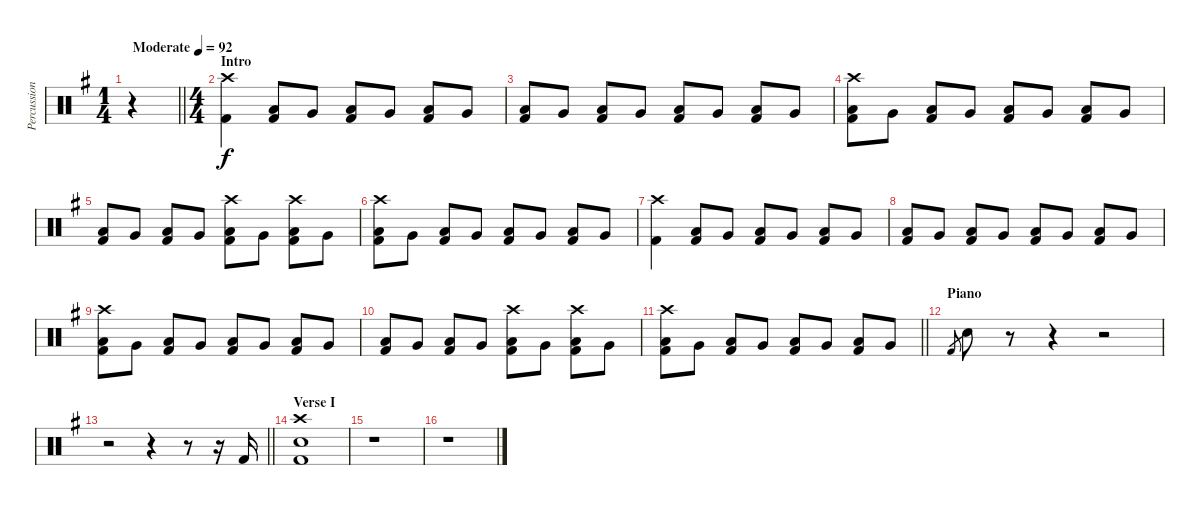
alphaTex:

\track ("Percussion" "Percussion") {instrument percussion}
\staff {score}
\articulation defaults
\ts (1 4)
\tempo (92 "Moderate")
\clef neutral
\barLineRight lightlight
\ks eminor
r.4{dy f} |
\ts (4 4)
\section ("" "Intro")
("Crash high (hit)" "Kick (hit) 2").4 ("Low Floor Tom (hit)" "Kick (hit) 2").8 "Very Low Tom (hit)".8 ("Low Floor Tom (hit)" "Kick (hit) 2").8 "Very Low Tom (hit)".8 ("Low Floor Tom (hit)" "Kick (hit) 2").8 "Very Low Tom (hit)".8 |
("Low Floor Tom (hit)" "Kick (hit) 2").8 "Very Low Tom (hit)".8 ("Low Floor Tom (hit)" "Kick (hit) 2").8 "Very Low Tom (hit)".8 ("Low Floor Tom (hit)" "Kick (hit) 2").8 "Very Low Tom (hit)".8 ("Low Floor Tom (hit)" "Kick (hit) 2").8 "Very Low Tom (hit)".8 |
("Crash high (hit)" "Low Floor Tom (hit)" "Kick (hit) 2").8 "Very Low Tom (hit)".8 ("Low Floor Tom (hit)" "Kick (hit) 2").8 "Very Low Tom (hit)".8 ("Low Floor Tom (hit)" "Kick (hit) 2").8 "Very Low Tom (hit)".8 ("Low Floor Tom (hit)" "Kick (hit) 2").8 "Very Low Tom (hit)".8 |
("Low Floor Tom (hit)" "Kick (hit) 2").8 "Very Low Tom (hit)".8 ("Low Floor Tom (hit)" "Kick (hit) 2").8 "Very Low Tom (hit)".8 ("Crash high (hit)" "Low Floor Tom (hit)" "Kick (hit) 2").8 "Very Low Tom (hit)".8 ("Crash high (hit)" "Low Floor Tom (hit)" "Kick (hit) 2").8 "Very Low Tom (hit)".8 |
("Crash high (hit)" "Low Floor Tom (hit)" "Kick (hit) 2").8 "Very Low Tom (hit)".8 ("Low Floor Tom (hit)" "Kick (hit) 2").8 "Very Low Tom (hit)".8 ("Low Floor Tom (hit)" "Kick (hit) 2").8 "Very Low Tom (hit)".8 ("Low Floor Tom (hit)" "Kick (hit) 2").8 "Very Low Tom (hit)".8 |
("Crash high (hit)" "Kick (hit) 2").4 ("Low Floor Tom (hit)" "Kick (hit) 2").8 "Very Low Tom (hit)".8 ("Low Floor Tom (hit)" "Kick (hit) 2").8 "Very Low Tom (hit)".8 ("Low Floor Tom (hit)" "Kick (hit) 2").8 "Very Low Tom (hit)".8 |
("Low Floor Tom (hit)" "Kick (hit) 2").8 "Very Low Tom (hit)".8 ("Low Floor Tom (hit)" "Kick (hit) 2").8 "Very Low Tom (hit)".8 ("Low Floor Tom (hit)" "Kick (hit) 2").8 "Very Low Tom (hit)".8 ("Low Floor Tom (hit)" "Kick (hit) 2").8 "Very Low Tom (hit)".8 |
("Crash high (hit)" "Low Floor Tom (hit)" "Kick (hit) 2").8 "Very Low Tom (hit)".8 ("Low Floor Tom (hit)" "Kick (hit) 2").8 "Very Low Tom (hit)".8 ("Low Floor Tom (hit)" "Kick (hit) 2").8 "Very Low Tom (hit)".8 ("Low Floor Tom (hit)" "Kick (hit) 2").8 "Very Low Tom (hit)".8 |
("Low Floor Tom (hit)" "Kick (hit) 2").8 "Very Low Tom (hit)".8 ("Low Floor Tom (hit)" "Kick (hit) 2").8 "Very Low Tom (hit)".8 ("Crash high (hit)" "Low Floor Tom (hit)" "Kick (hit) 2").8 "Very Low Tom (hit)".8 ("Crash high (hit)" "Low Floor Tom (hit)" "Kick (hit) 2").8 "Very Low Tom (hit)".8 |
\barLineRight lightlight
("Crash high (hit)" "Low Floor Tom (hit)" "Kick (hit) 2").8 "Very Low Tom (hit)".8 ("Low Floor Tom (hit)" "Kick (hit) 2").8 "Very Low Tom (hit)".8 ("Low Floor Tom (hit)" "Kick (hit) 2").8 "Very Low Tom (hit)".8 ("Low Floor Tom (hit)" "Kick (hit) 2").8 "Very Low Tom (hit)".8 |
\section ("" "Piano")
"Kick (hit) 2".8{gr} "Electric Snare (hit)".8 r.8 r.4 r.2 |
\barLineRight lightlight
r.2 r.4 r.8 r.16 "Kick (hit) 2".16 |
\section ("" "Verse I")
("Crash high (hit)" "Electric Snare (hit)" "Kick (hit) 2").1 |
r.1 |
r.1
